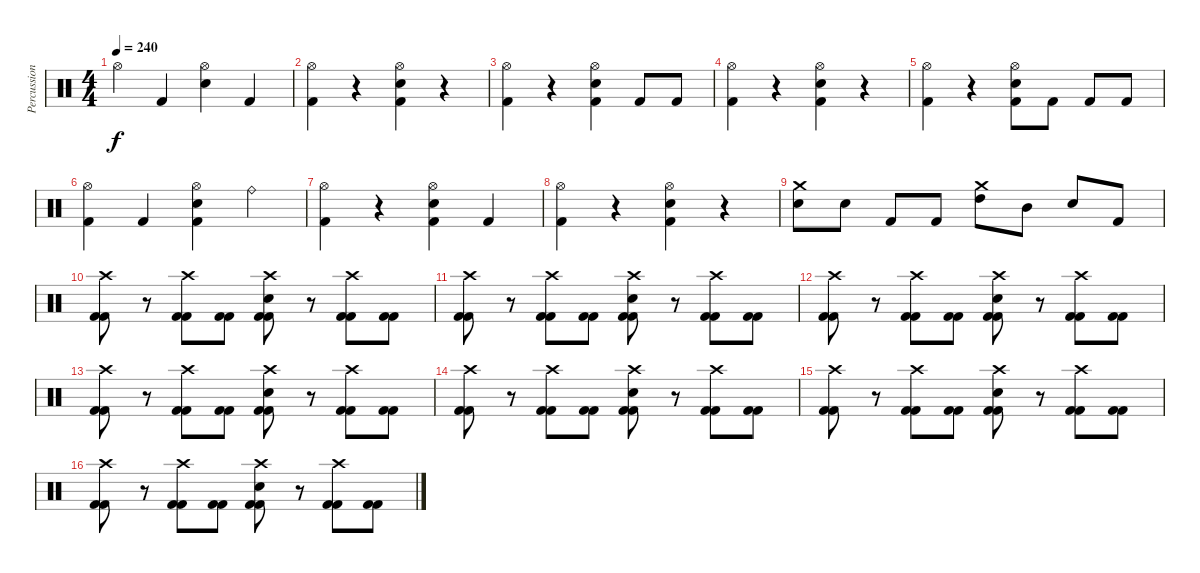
\track ("Percussion" "Percussion") {instrument percussion}
\staff {score}
\articulation defaults
\ts (4 4)
\tempo 240
\clef neutral
\ks c "Hi-Hat (open)".4{dy f} "Kick (hit) 2".4
("Hi-Hat (open)" "Electric Snare (hit)").4 "Kick (hit) 2".4 |
("Hi-Hat (open)" "Kick (hit) 2").4 r.4 ("Hi-Hat (open)" "Electric Snare (hit)" "Kick (hit) 2").4 r.4 |
("Hi-Hat (open)" "Kick (hit) 2").4 r.4 ("Hi-Hat (open)" "Electric Snare (hit)" "Kick (hit) 2").4 "Kick (hit) 2".8 "Kick (hit) 2".8 |
("Hi-Hat (open)" "Kick (hit) 2").4 r.4 ("Hi-Hat (open)" "Electric Snare (hit)" "Kick (hit) 2").4 r.4 |
("Hi-Hat (open)" "Kick (hit) 2").4 r.4 ("Hi-Hat (open)" "Electric Snare (hit)" "Kick (hit) 2").8 "Kick (hit) 2".8 "Kick (hit) 2".8 "Kick (hit) 2".8 |
("Hi-Hat (open)" "Kick (hit) 2").4 "Kick (hit) 2".4 ("Hi-Hat (open)" "Electric Snare (hit)" "Kick (hit) 2").4 "Ride (bell)".4 |
("Hi-Hat (open)" "Kick (hit) 2").4 r.4 ("Hi-Hat (open)" "Electric Snare (hit)" "Kick (hit) 2").4 "Kick (hit) 2".4 |
("Hi-Hat (open)" "Kick (hit) 2").4 r.4 ("Hi-Hat (open)" "Electric Snare (hit)" "Kick (hit) 2").4 r.4 |
("Crash medium (hit)" "Electric Snare (hit)").8 "Electric Snare (hit)".8 "Kick (hit) 2".8 "Kick (hit) 2".8 ("Crash medium (hit)" "High Tom (hit)").8 "Mid Tom (hit)".8 "Electric Snare (hit)".8 "Kick (hit) 2".8 |
("Crash high (hit)" "Kick (hit) 2" "Kick (hit) 2").8 r.8 ("Crash high (hit)" "Kick (hit) 2" "Kick (hit) 2").8 ("Kick (hit) 2" "Kick (hit) 2").8 ("Crash high (hit)" "Electric Snare (hit)" "Kick (hit) 2" "Kick (hit) 2").8 r.8 ("Crash high (hit)" "Kick (hit) 2" "Kick (hit) 2").8 ("Kick (hit) 2" "Kick (hit) 2").8 |
("Crash high (hit)" "Kick (hit) 2" "Kick (hit) 2").8 r.8 ("Crash high (hit)" "Kick (hit) 2" "Kick (hit) 2").8 ("Kick (hit) 2" "Kick (hit) 2").8 ("Crash high (hit)" "Electric Snare (hit)" "Kick (hit) 2" "Kick (hit) 2").8 r.8 ("Crash high (hit)" "Kick (hit) 2" "Kick (hit) 2").8 ("Kick (hit) 2" "Kick (hit) 2").8 |
("Crash high (hit)" "Kick (hit) 2" "Kick (hit) 2").8 r.8 ("Crash high (hit)" "Kick (hit) 2" "Kick (hit) 2").8 ("Kick (hit) 2" "Kick (hit) 2").8 ("Crash high (hit)" "Electric Snare (hit)" "Kick (hit) 2" "Kick (hit) 2").8 r.8 ("Crash high (hit)" "Kick (hit) 2" "Kick (hit) 2").8 ("Kick (hit) 2" "Kick (hit) 2").8 |
("Crash high (hit)" "Kick (hit) 2" "Kick (hit) 2").8 r.8 ("Crash high (hit)" "Kick (hit) 2" "Kick (hit) 2").8 ("Kick (hit) 2" "Kick (hit) 2").8 ("Crash high (hit)" "Electric Snare (hit)" "Kick (hit) 2" "Kick (hit) 2").8 r.8 ("Crash high (hit)" "Kick (hit) 2" "Kick (hit) 2").8 ("Kick (hit) 2" "Kick (hit) 2").8 |
("Crash high (hit)" "Kick (hit) 2" "Kick (hit) 2").8 r.8 ("Crash high (hit)" "Kick (hit) 2" "Kick (hit) 2").8 ("Kick (hit) 2" "Kick (hit) 2").8 ("Crash high (hit)" "Electric Snare (hit)" "Kick (hit) 2" "Kick (hit) 2").8 r.8 ("Crash high (hit)" "Kick (hit) 2" "Kick (hit) 2").8 ("Kick (hit) 2" "Kick (hit) 2").8 |
("Crash high (hit)" "Kick (hit) 2" "Kick (hit) 2").8 r.8 ("Crash high (hit)" "Kick (hit) 2" "Kick (hit) 2").8 ("Kick (hit) 2" "Kick (hit) 2").8 ("Crash high (hit)" "Electric Snare (hit)" "Kick (hit) 2" "Kick (hit) 2").8 r.8 ("Crash high (hit)" "Kick (hit) 2" "Kick (hit) 2").8 ("Kick (hit) 2" "Kick (hit) 2").8 |
("Crash high (hit)" "Kick (hit) 2" "Kick (hit) 2").8 r.8 ("Crash high (hit)" "Kick (hit) 2" "Kick (hit) 2").8 ("Kick (hit) 2" "Kick (hit) 2").8 ("Crash high (hit)" "Electric Snare (hit)" "Kick (hit) 2" "Kick (hit) 2").8 r.8 ("Crash high (hit)" "Kick (hit) 2" "Kick (hit) 2").8 ("Kick (hit) 2" "Kick (hit) 2").8
